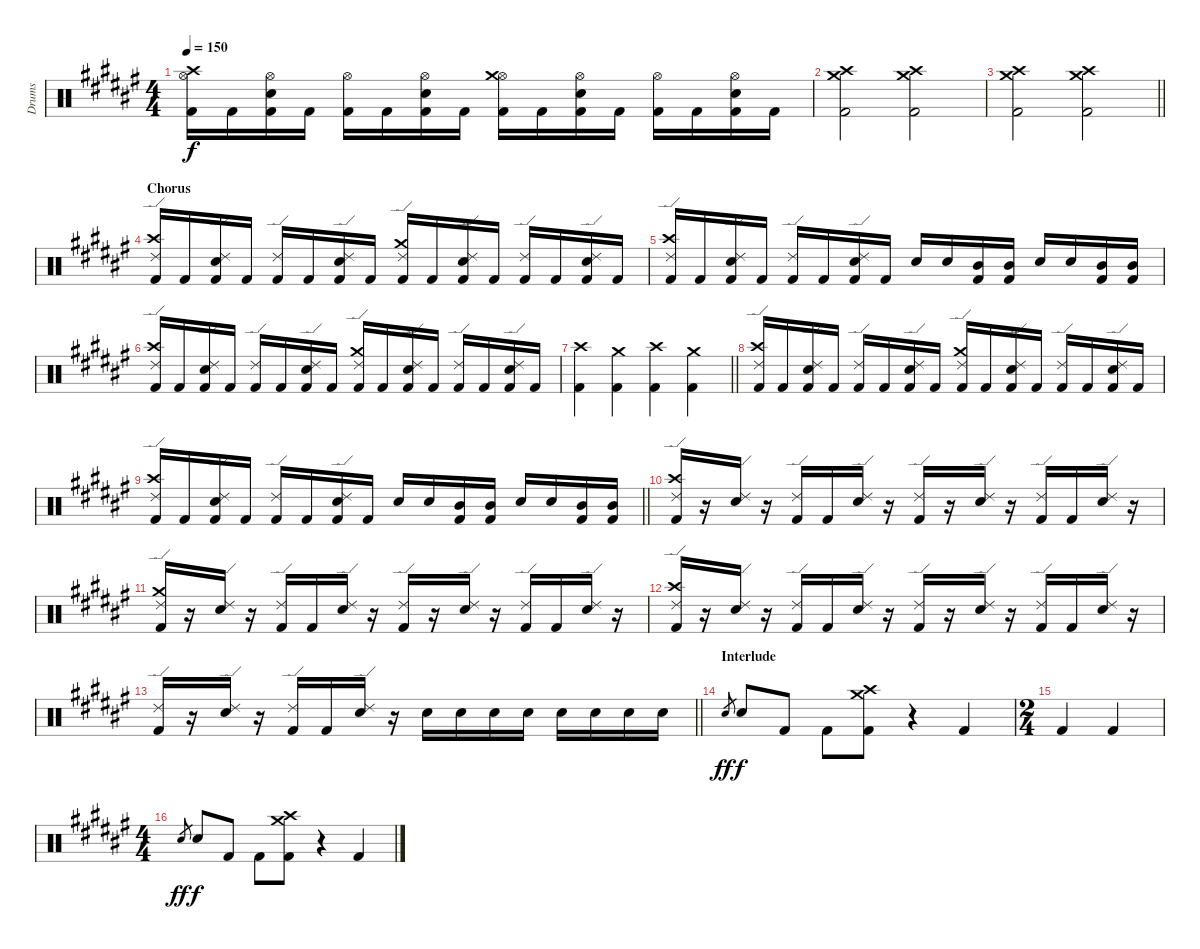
\track ("Drums" "Drums") {instrument percussion}
\staff {score}
\articulation defaults
\ts (4 4)
\tempo 150
\clef neutral
\ks d#minor
("Kick (hit) 2" "Hi-Hat (open)" "Crash high (hit)").16{dy f} "Kick (hit) 2".16 ("Kick (hit) 2" "Electric Snare (hit)" "Hi-Hat (open)").16 "Kick (hit) 2".16 ("Kick (hit) 2" "Hi-Hat (open)").16 "Kick (hit) 2".16 ("Kick (hit) 2" "Electric Snare (hit)" "Hi-Hat (open)").16 "Kick (hit) 2".16 ("Kick (hit) 2" "Hi-Hat (open)" "Crash medium (hit)").16 "Kick (hit) 2".16 ("Kick (hit) 2" "Electric Snare (hit)" "Hi-Hat (open)").16 "Kick (hit) 2".16 ("Kick (hit) 2" "Hi-Hat (open)").16 "Kick (hit) 2".16 ("Kick (hit) 2" "Electric Snare (hit)" "Hi-Hat (open)").16 "Kick (hit) 2".16 |
("Kick (hit) 2" "Crash medium (hit)" "Crash high (hit)").2 ("Kick (hit) 2" "Crash medium (hit)" "Crash high (hit)").2 |
\barLineRight lightlight
("Kick (hit) 2" "Crash medium (hit)" "Crash high (hit)").2 ("Kick (hit) 2" "Crash medium (hit)" "Crash high (hit)").2 |
\section ("" "Chorus")
("Kick (hit) 2" "Ride (edge) 2" "Crash high (hit)").16 "Kick (hit) 2".16 ("Kick (hit) 2" "Electric Snare (hit)" "Ride (edge) 2").16 "Kick (hit) 2".16 ("Kick (hit) 2" "Ride (edge) 2").16 "Kick (hit) 2".16 ("Kick (hit) 2" "Electric Snare (hit)" "Ride (edge) 2").16 "Kick (hit) 2".16 ("Kick (hit) 2" "Ride (edge) 2" "Crash medium (hit)").16 "Kick (hit) 2".16 ("Kick (hit) 2" "Electric Snare (hit)" "Ride (edge) 2").16 "Kick (hit) 2".16 ("Kick (hit) 2" "Ride (edge) 2").16 "Kick (hit) 2".16 ("Kick (hit) 2" "Electric Snare (hit)" "Ride (edge) 2").16 "Kick (hit) 2".16 |
("Kick (hit) 2" "Ride (edge) 2" "Crash high (hit)").16 "Kick (hit) 2".16 ("Kick (hit) 2" "Electric Snare (hit)" "Ride (edge) 2").16 "Kick (hit) 2".16 ("Kick (hit) 2" "Ride (edge) 2").16 "Kick (hit) 2".16 ("Kick (hit) 2" "Electric Snare (hit)" "Ride (edge) 2").16 "Kick (hit) 2".16 "Electric Snare (hit)".16 "Electric Snare (hit)".16 ("Kick (hit) 2" "Mid Tom (hit)").16 ("Kick (hit) 2" "Mid Tom (hit)").16 "Electric Snare (hit)".16 "Electric Snare (hit)".16 ("Kick (hit) 2" "Mid Tom (hit)").16 ("Kick (hit) 2" "Mid Tom (hit)").16 |
("Kick (hit) 2" "Ride (edge) 2" "Crash high (hit)").16 "Kick (hit) 2".16 ("Kick (hit) 2" "Electric Snare (hit)" "Ride (edge) 2").16 "Kick (hit) 2".16 ("Kick (hit) 2" "Ride (edge) 2").16 "Kick (hit) 2".16 ("Kick (hit) 2" "Electric Snare (hit)" "Ride (edge) 2").16 "Kick (hit) 2".16 ("Kick (hit) 2" "Ride (edge) 2" "Crash medium (hit)").16 "Kick (hit) 2".16 ("Kick (hit) 2" "Electric Snare (hit)" "Ride (edge) 2").16 "Kick (hit) 2".16 ("Kick (hit) 2" "Ride (edge) 2").16 "Kick (hit) 2".16 ("Kick (hit) 2" "Electric Snare (hit)" "Ride (edge) 2").16 "Kick (hit) 2".16 |
\barLineRight lightlight
("Kick (hit) 2" "Crash high (hit)").4 ("Kick (hit) 2" "Crash medium (hit)").4 ("Kick (hit) 2" "Crash high (hit)").4 ("Kick (hit) 2" "Crash medium (hit)").4 |
("Kick (hit) 2" "Ride (edge) 2" "Crash high (hit)").16 "Kick (hit) 2".16 ("Kick (hit) 2" "Electric Snare (hit)" "Ride (edge) 2").16 "Kick (hit) 2".16 ("Kick (hit) 2" "Ride (edge) 2").16 "Kick (hit) 2".16 ("Kick (hit) 2" "Electric Snare (hit)" "Ride (edge) 2").16 "Kick (hit) 2".16 ("Kick (hit) 2" "Ride (edge) 2" "Crash medium (hit)").16 "Kick (hit) 2".16 ("Kick (hit) 2" "Electric Snare (hit)" "Ride (edge) 2").16 "Kick (hit) 2".16 ("Kick (hit) 2" "Ride (edge) 2").16 "Kick (hit) 2".16 ("Kick (hit) 2" "Electric Snare (hit)" "Ride (edge) 2").16 "Kick (hit) 2".16 |
\barLineRight lightlight
("Kick (hit) 2" "Ride (edge) 2" "Crash high (hit)").16 "Kick (hit) 2".16 ("Kick (hit) 2" "Electric Snare (hit)" "Ride (edge) 2").16 "Kick (hit) 2".16 ("Kick (hit) 2" "Ride (edge) 2").16 "Kick (hit) 2".16 ("Kick (hit) 2" "Electric Snare (hit)" "Ride (edge) 2").16 "Kick (hit) 2".16 "Electric Snare (hit)".16 "Electric Snare (hit)".16 ("Kick (hit) 2" "Mid Tom (hit)").16 ("Kick (hit) 2" "Mid Tom (hit)").16 "Electric Snare (hit)".16 "Electric Snare (hit)".16 ("Kick (hit) 2" "Mid Tom (hit)").16 ("Kick (hit) 2" "Mid Tom (hit)").16 |
("Kick (hit) 2" "Ride (edge) 2" "Crash high (hit)").16 r.16 ("Electric Snare (hit)" "Ride (edge) 2").16 r.16 ("Kick (hit) 2" "Ride (edge) 2").16 "Kick (hit) 2".16 ("Electric Snare (hit)" "Ride (edge) 2").16 r.16 ("Kick (hit) 2" "Ride (edge) 2").16 r.16 ("Electric Snare (hit)" "Ride (edge) 2").16 r.16 ("Kick (hit) 2" "Ride (edge) 2").16 "Kick (hit) 2".16 ("Electric Snare (hit)" "Ride (edge) 2").16 r.16 |
("Kick (hit) 2" "Ride (edge) 2" "Crash medium (hit)").16 r.16 ("Electric Snare (hit)" "Ride (edge) 2").16 r.16 ("Kick (hit) 2" "Ride (edge) 2").16 "Kick (hit) 2".16 ("Electric Snare (hit)" "Ride (edge) 2").16 r.16 ("Kick (hit) 2" "Ride (edge) 2").16 r.16 ("Electric Snare (hit)" "Ride (edge) 2").16 r.16 ("Kick (hit) 2" "Ride (edge) 2").16 "Kick (hit) 2".16 ("Electric Snare (hit)" "Ride (edge) 2").16 r.16 |
("Kick (hit) 2" "Ride (edge) 2" "Crash high (hit)").16 r.16 ("Electric Snare (hit)" "Ride (edge) 2").16 r.16 ("Kick (hit) 2" "Ride (edge) 2").16 "Kick (hit) 2".16 ("Electric Snare (hit)" "Ride (edge) 2").16 r.16 ("Kick (hit) 2" "Ride (edge) 2").16 r.16 ("Electric Snare (hit)" "Ride (edge) 2").16 r.16 ("Kick (hit) 2" "Ride (edge) 2").16 "Kick (hit) 2".16 ("Electric Snare (hit)" "Ride (edge) 2").16 r.16 |
\barLineRight lightlight
("Kick (hit) 2" "Ride (edge) 2").16 r.16 ("Electric Snare (hit)" "Ride (edge) 2").16 r.16 ("Kick (hit) 2" "Ride (edge) 2").16 "Kick (hit) 2".16 ("Electric Snare (hit)" "Ride (edge) 2").16 r.16 "Electric Snare (hit)".16 "Electric Snare (hit)".16 "Electric Snare (hit)".16 "Electric Snare (hit)".16 "Electric Snare (hit)".16 "Electric Snare (hit)".16 "Electric Snare (hit)".16 "Electric Snare (hit)".16 |
\section ("" "Interlude")
"Electric Snare (hit)".8{gr dy ff} "Electric Snare (hit)".8{dy f} "Kick (hit) 2".8 "Kick (hit) 2".8 ("Kick (hit) 2" "Crash medium (hit)" "Crash high (hit)").8 r.4 "Kick (hit) 2".4 |
\ts (2 4)
"Kick (hit) 2".4 "Kick (hit) 2".4 |
\ts (4 4)
"Electric Snare (hit)".8{gr dy ff} "Electric Snare (hit)".8{dy f} "Kick (hit) 2".8 "Kick (hit) 2".8 ("Kick (hit) 2" "Crash medium (hit)" "Crash high (hit)").8 r.4 "Kick (hit) 2".4
